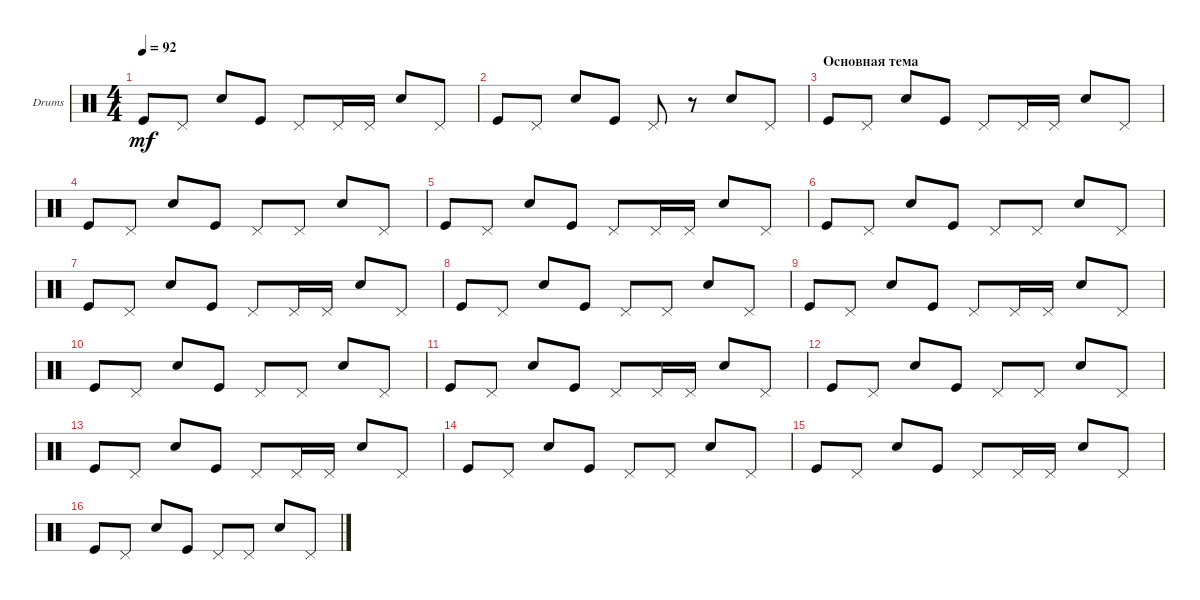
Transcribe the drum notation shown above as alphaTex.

\defaultSystemsLayout 4
\bracketExtendMode groupsimilarinstruments
\firstSystemTrackNameOrientation horizontal
\otherSystemsTrackNameOrientation horizontal
\track ("Drumkit" "Drums") {instrument percussion}
\staff {score}
\articulation defaults
\ts (4 4)
\tempo 92
\clef neutral
\ks c "Kick (hit)".8{dy mf} "Pedal Hi-Hat (hit)".8 "Snare (hit) 2".8 "Kick (hit)".8 "Pedal Hi-Hat (hit)".8 "Pedal Hi-Hat (hit)".16 "Pedal Hi-Hat (hit)".16 "Snare (hit) 2".8 "Pedal Hi-Hat (hit)".8
|
"Kick (hit)".8 "Pedal Hi-Hat (hit)".8 "Snare (hit) 2".8 "Kick (hit)".8 "Pedal Hi-Hat (hit)".8 r.8 "Snare (hit) 2".8 "Pedal Hi-Hat (hit)".8 |
\section ("" "Основная тема")
"Kick (hit)".8 "Pedal Hi-Hat (hit)".8 "Snare (hit) 2".8 "Kick (hit)".8 "Pedal Hi-Hat (hit)".8 "Pedal Hi-Hat (hit)".16 "Pedal Hi-Hat (hit)".16 "Snare (hit) 2".8 "Pedal Hi-Hat (hit)".8 |
"Kick (hit)".8 "Pedal Hi-Hat (hit)".8 "Snare (hit) 2".8 "Kick (hit)".8 "Pedal Hi-Hat (hit)".8 "Pedal Hi-Hat (hit)".8 "Snare (hit) 2".8 "Pedal Hi-Hat (hit)".8 |
"Kick (hit)".8 "Pedal Hi-Hat (hit)".8 "Snare (hit) 2".8 "Kick (hit)".8 "Pedal Hi-Hat (hit)".8 "Pedal Hi-Hat (hit)".16 "Pedal Hi-Hat (hit)".16 "Snare (hit) 2".8 "Pedal Hi-Hat (hit)".8 |
"Kick (hit)".8 "Pedal Hi-Hat (hit)".8 "Snare (hit) 2".8 "Kick (hit)".8 "Pedal Hi-Hat (hit)".8 "Pedal Hi-Hat (hit)".8 "Snare (hit) 2".8 "Pedal Hi-Hat (hit)".8 |
"Kick (hit)".8 "Pedal Hi-Hat (hit)".8 "Snare (hit) 2".8 "Kick (hit)".8 "Pedal Hi-Hat (hit)".8 "Pedal Hi-Hat (hit)".16 "Pedal Hi-Hat (hit)".16 "Snare (hit) 2".8 "Pedal Hi-Hat (hit)".8 |
"Kick (hit)".8 "Pedal Hi-Hat (hit)".8 "Snare (hit) 2".8 "Kick (hit)".8 "Pedal Hi-Hat (hit)".8 "Pedal Hi-Hat (hit)".8 "Snare (hit) 2".8 "Pedal Hi-Hat (hit)".8 |
"Kick (hit)".8 "Pedal Hi-Hat (hit)".8 "Snare (hit) 2".8 "Kick (hit)".8 "Pedal Hi-Hat (hit)".8 "Pedal Hi-Hat (hit)".16 "Pedal Hi-Hat (hit)".16 "Snare (hit) 2".8 "Pedal Hi-Hat (hit)".8 |
"Kick (hit)".8 "Pedal Hi-Hat (hit)".8 "Snare (hit) 2".8 "Kick (hit)".8 "Pedal Hi-Hat (hit)".8 "Pedal Hi-Hat (hit)".8 "Snare (hit) 2".8 "Pedal Hi-Hat (hit)".8 |
"Kick (hit)".8 "Pedal Hi-Hat (hit)".8 "Snare (hit) 2".8 "Kick (hit)".8 "Pedal Hi-Hat (hit)".8 "Pedal Hi-Hat (hit)".16 "Pedal Hi-Hat (hit)".16 "Snare (hit) 2".8 "Pedal Hi-Hat (hit)".8 |
"Kick (hit)".8 "Pedal Hi-Hat (hit)".8 "Snare (hit) 2".8 "Kick (hit)".8 "Pedal Hi-Hat (hit)".8 "Pedal Hi-Hat (hit)".8 "Snare (hit) 2".8 "Pedal Hi-Hat (hit)".8 |
"Kick (hit)".8 "Pedal Hi-Hat (hit)".8 "Snare (hit) 2".8 "Kick (hit)".8 "Pedal Hi-Hat (hit)".8 "Pedal Hi-Hat (hit)".16 "Pedal Hi-Hat (hit)".16 "Snare (hit) 2".8 "Pedal Hi-Hat (hit)".8 |
"Kick (hit)".8 "Pedal Hi-Hat (hit)".8 "Snare (hit) 2".8 "Kick (hit)".8 "Pedal Hi-Hat (hit)".8 "Pedal Hi-Hat (hit)".8 "Snare (hit) 2".8 "Pedal Hi-Hat (hit)".8 |
"Kick (hit)".8 "Pedal Hi-Hat (hit)".8 "Snare (hit) 2".8 "Kick (hit)".8 "Pedal Hi-Hat (hit)".8 "Pedal Hi-Hat (hit)".16 "Pedal Hi-Hat (hit)".16 "Snare (hit) 2".8 "Pedal Hi-Hat (hit)".8 |
"Kick (hit)".8 "Pedal Hi-Hat (hit)".8 "Snare (hit) 2".8 "Kick (hit)".8 "Pedal Hi-Hat (hit)".8 "Pedal Hi-Hat (hit)".8 "Snare (hit) 2".8 "Pedal Hi-Hat (hit)".8
